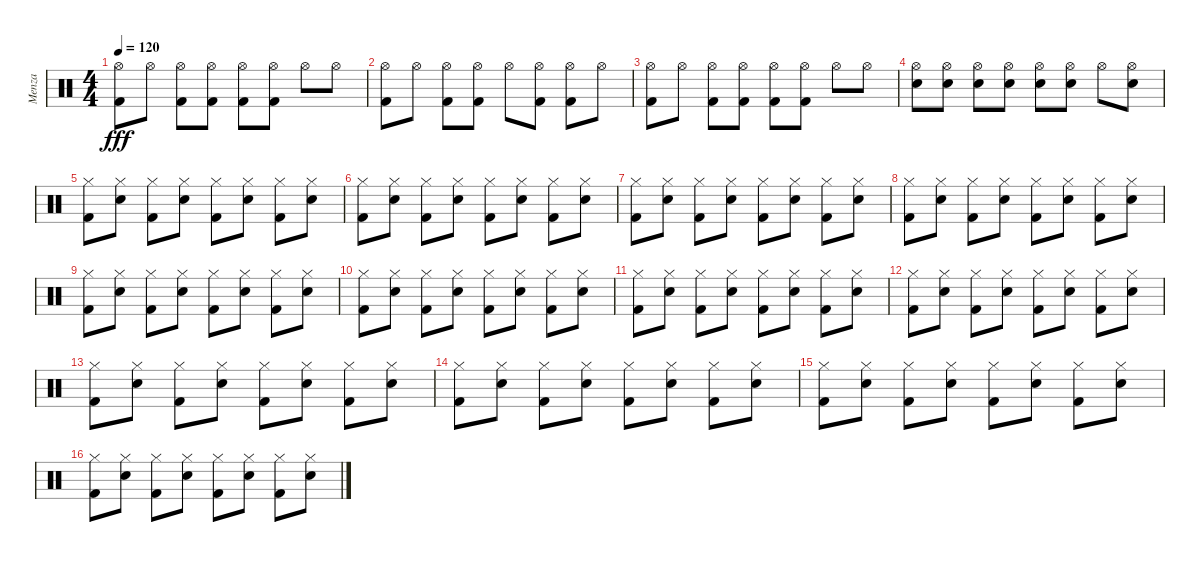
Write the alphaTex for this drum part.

\track ("Menza" "Menza") {instrument percussion}
\staff {score}
\articulation defaults
\ts (4 4)
\tempo 120
\clef neutral
\ks c
("Hi-Hat (open)" "Kick (hit) 2").8{dy fff} "Hi-Hat (open)".8 ("Hi-Hat (open)" "Kick (hit) 2").8 ("Hi-Hat (open)" "Kick (hit) 2").8 ("Hi-Hat (open)" "Kick (hit) 2").8 ("Hi-Hat (open)" "Kick (hit) 2").8 "Hi-Hat (open)".8 "Hi-Hat (open)".8 |
("Hi-Hat (open)" "Kick (hit) 2").8 "Hi-Hat (open)".8 ("Hi-Hat (open)" "Kick (hit) 2").8 ("Hi-Hat (open)" "Kick (hit) 2").8 "Hi-Hat (open)".8 ("Hi-Hat (open)" "Kick (hit) 2").8 ("Hi-Hat (open)" "Kick (hit) 2").8 "Hi-Hat (open)".8 |
("Hi-Hat (open)" "Kick (hit) 2").8 "Hi-Hat (open)".8 ("Hi-Hat (open)" "Kick (hit) 2").8 ("Hi-Hat (open)" "Kick (hit) 2").8 ("Hi-Hat (open)" "Kick (hit) 2").8 ("Hi-Hat (open)" "Kick (hit) 2").8 "Hi-Hat (open)".8 "Hi-Hat (open)".8 |
("Hi-Hat (open)" "Snare (hit) 2").8 ("Hi-Hat (open)" "Snare (hit) 2").8 ("Hi-Hat (open)" "Snare (hit) 2").8 ("Hi-Hat (open)" "Snare (hit) 2").8 ("Hi-Hat (open)" "Snare (hit) 2").8 ("Hi-Hat (open)" "Snare (hit) 2").8 "Hi-Hat (open)".8 ("Hi-Hat (open)" "Snare (hit) 2").8 |
("Hi-Hat (closed)" "Kick (hit) 2").8 ("Hi-Hat (closed)" "Snare (hit) 2").8 ("Hi-Hat (closed)" "Kick (hit) 2").8 ("Hi-Hat (closed)" "Snare (hit) 2").8 ("Hi-Hat (closed)" "Kick (hit) 2").8 ("Hi-Hat (closed)" "Snare (hit) 2").8 ("Hi-Hat (closed)" "Kick (hit) 2").8 ("Hi-Hat (closed)" "Snare (hit) 2").8 |
("Hi-Hat (closed)" "Kick (hit) 2").8 ("Hi-Hat (closed)" "Snare (hit) 2").8 ("Hi-Hat (closed)" "Kick (hit) 2").8 ("Hi-Hat (closed)" "Snare (hit) 2").8 ("Hi-Hat (closed)" "Kick (hit) 2").8 ("Hi-Hat (closed)" "Snare (hit) 2").8 ("Hi-Hat (closed)" "Kick (hit) 2").8 ("Hi-Hat (closed)" "Snare (hit) 2").8 |
("Hi-Hat (closed)" "Kick (hit) 2").8 ("Hi-Hat (closed)" "Snare (hit) 2").8 ("Hi-Hat (closed)" "Kick (hit) 2").8 ("Hi-Hat (closed)" "Snare (hit) 2").8 ("Hi-Hat (closed)" "Kick (hit) 2").8 ("Hi-Hat (closed)" "Snare (hit) 2").8 ("Hi-Hat (closed)" "Kick (hit) 2").8 ("Hi-Hat (closed)" "Snare (hit) 2").8 |
("Hi-Hat (closed)" "Kick (hit) 2").8 ("Hi-Hat (closed)" "Snare (hit) 2").8 ("Hi-Hat (closed)" "Kick (hit) 2").8 ("Hi-Hat (closed)" "Snare (hit) 2").8 ("Hi-Hat (closed)" "Kick (hit) 2").8 ("Hi-Hat (closed)" "Snare (hit) 2").8 ("Hi-Hat (closed)" "Kick (hit) 2").8 ("Hi-Hat (closed)" "Snare (hit) 2").8 |
("Hi-Hat (closed)" "Kick (hit) 2").8 ("Hi-Hat (closed)" "Snare (hit) 2").8 ("Hi-Hat (closed)" "Kick (hit) 2").8 ("Hi-Hat (closed)" "Snare (hit) 2").8 ("Hi-Hat (closed)" "Kick (hit) 2").8 ("Hi-Hat (closed)" "Snare (hit) 2").8 ("Hi-Hat (closed)" "Kick (hit) 2").8 ("Hi-Hat (closed)" "Snare (hit) 2").8 |
("Hi-Hat (closed)" "Kick (hit) 2").8 ("Hi-Hat (closed)" "Snare (hit) 2").8 ("Hi-Hat (closed)" "Kick (hit) 2").8 ("Hi-Hat (closed)" "Snare (hit) 2").8 ("Hi-Hat (closed)" "Kick (hit) 2").8 ("Hi-Hat (closed)" "Snare (hit) 2").8 ("Hi-Hat (closed)" "Kick (hit) 2").8 ("Hi-Hat (closed)" "Snare (hit) 2").8 |
("Hi-Hat (closed)" "Kick (hit) 2").8 ("Hi-Hat (closed)" "Snare (hit) 2").8 ("Hi-Hat (closed)" "Kick (hit) 2").8 ("Hi-Hat (closed)" "Snare (hit) 2").8 ("Hi-Hat (closed)" "Kick (hit) 2").8 ("Hi-Hat (closed)" "Snare (hit) 2").8 ("Hi-Hat (closed)" "Kick (hit) 2").8 ("Hi-Hat (closed)" "Snare (hit) 2").8 |
("Hi-Hat (closed)" "Kick (hit) 2").8 ("Hi-Hat (closed)" "Snare (hit) 2").8 ("Hi-Hat (closed)" "Kick (hit) 2").8 ("Hi-Hat (closed)" "Snare (hit) 2").8 ("Hi-Hat (closed)" "Kick (hit) 2").8 ("Hi-Hat (closed)" "Snare (hit) 2").8 ("Hi-Hat (closed)" "Kick (hit) 2").8 ("Hi-Hat (closed)" "Snare (hit) 2").8 |
("Hi-Hat (closed)" "Kick (hit) 2").8 ("Hi-Hat (closed)" "Snare (hit) 2").8 ("Hi-Hat (closed)" "Kick (hit) 2").8 ("Hi-Hat (closed)" "Snare (hit) 2").8 ("Hi-Hat (closed)" "Kick (hit) 2").8 ("Hi-Hat (closed)" "Snare (hit) 2").8 ("Hi-Hat (closed)" "Kick (hit) 2").8 ("Hi-Hat (closed)" "Snare (hit) 2").8 |
("Hi-Hat (closed)" "Kick (hit) 2").8 ("Hi-Hat (closed)" "Snare (hit) 2").8 ("Hi-Hat (closed)" "Kick (hit) 2").8 ("Hi-Hat (closed)" "Snare (hit) 2").8 ("Hi-Hat (closed)" "Kick (hit) 2").8 ("Hi-Hat (closed)" "Snare (hit) 2").8 ("Hi-Hat (closed)" "Kick (hit) 2").8 ("Hi-Hat (closed)" "Snare (hit) 2").8 |
("Hi-Hat (closed)" "Kick (hit) 2").8 ("Hi-Hat (closed)" "Snare (hit) 2").8 ("Hi-Hat (closed)" "Kick (hit) 2").8 ("Hi-Hat (closed)" "Snare (hit) 2").8 ("Hi-Hat (closed)" "Kick (hit) 2").8 ("Hi-Hat (closed)" "Snare (hit) 2").8 ("Hi-Hat (closed)" "Kick (hit) 2").8 ("Hi-Hat (closed)" "Snare (hit) 2").8 |
("Hi-Hat (closed)" "Kick (hit) 2").8 ("Hi-Hat (closed)" "Snare (hit) 2").8 ("Hi-Hat (closed)" "Kick (hit) 2").8 ("Hi-Hat (closed)" "Snare (hit) 2").8 ("Hi-Hat (closed)" "Kick (hit) 2").8 ("Hi-Hat (closed)" "Snare (hit) 2").8 ("Hi-Hat (closed)" "Kick (hit) 2").8 ("Hi-Hat (closed)" "Snare (hit) 2").8
